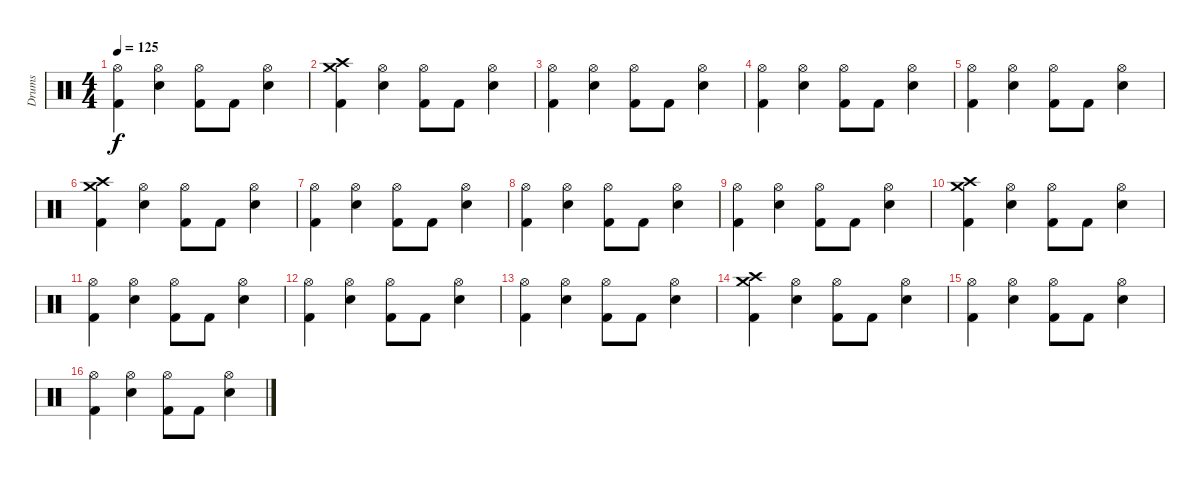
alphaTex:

\track ("Drums" "Drums") {instrument percussion}
\staff {score}
\articulation defaults
\ts (4 4)
\tempo 125
\clef neutral
\ks c
("Hi-Hat (open)" "Kick (hit) 2").4{dy f} ("Hi-Hat (open)" "Snare (hit) 2").4 ("Hi-Hat (open)" "Kick (hit) 2").8 "Kick (hit) 2".8 ("Hi-Hat (open)" "Snare (hit) 2").4 |
("Crash medium (hit)" "Crash high (hit)" "Kick (hit) 2").4 ("Hi-Hat (open)" "Snare (hit) 2").4 ("Hi-Hat (open)" "Kick (hit) 2").8 "Kick (hit) 2".8 ("Hi-Hat (open)" "Snare (hit) 2").4 |
("Hi-Hat (open)" "Kick (hit) 2").4 ("Hi-Hat (open)" "Snare (hit) 2").4 ("Hi-Hat (open)" "Kick (hit) 2").8 "Kick (hit) 2".8 ("Hi-Hat (open)" "Snare (hit) 2").4 |
("Hi-Hat (open)" "Kick (hit) 2").4 ("Hi-Hat (open)" "Snare (hit) 2").4 ("Hi-Hat (open)" "Kick (hit) 2").8 "Kick (hit) 2".8 ("Hi-Hat (open)" "Snare (hit) 2").4 |
("Hi-Hat (open)" "Kick (hit) 2").4 ("Hi-Hat (open)" "Snare (hit) 2").4 ("Hi-Hat (open)" "Kick (hit) 2").8 "Kick (hit) 2".8 ("Hi-Hat (open)" "Snare (hit) 2").4 |
("Crash medium (hit)" "Crash high (hit)" "Kick (hit) 2").4 ("Hi-Hat (open)" "Snare (hit) 2").4 ("Hi-Hat (open)" "Kick (hit) 2").8 "Kick (hit) 2".8 ("Hi-Hat (open)" "Snare (hit) 2").4 |
("Hi-Hat (open)" "Kick (hit) 2").4 ("Hi-Hat (open)" "Snare (hit) 2").4 ("Hi-Hat (open)" "Kick (hit) 2").8 "Kick (hit) 2".8 ("Hi-Hat (open)" "Snare (hit) 2").4 |
("Hi-Hat (open)" "Kick (hit) 2").4 ("Hi-Hat (open)" "Snare (hit) 2").4 ("Hi-Hat (open)" "Kick (hit) 2").8 "Kick (hit) 2".8 ("Hi-Hat (open)" "Snare (hit) 2").4 |
("Hi-Hat (open)" "Kick (hit) 2").4 ("Hi-Hat (open)" "Snare (hit) 2").4 ("Hi-Hat (open)" "Kick (hit) 2").8 "Kick (hit) 2".8 ("Hi-Hat (open)" "Snare (hit) 2").4 |
("Crash medium (hit)" "Crash high (hit)" "Kick (hit) 2").4 ("Hi-Hat (open)" "Snare (hit) 2").4 ("Hi-Hat (open)" "Kick (hit) 2").8 "Kick (hit) 2".8 ("Hi-Hat (open)" "Snare (hit) 2").4 |
("Hi-Hat (open)" "Kick (hit) 2").4 ("Hi-Hat (open)" "Snare (hit) 2").4 ("Hi-Hat (open)" "Kick (hit) 2").8 "Kick (hit) 2".8 ("Hi-Hat (open)" "Snare (hit) 2").4 |
("Hi-Hat (open)" "Kick (hit) 2").4 ("Hi-Hat (open)" "Snare (hit) 2").4 ("Hi-Hat (open)" "Kick (hit) 2").8 "Kick (hit) 2".8 ("Hi-Hat (open)" "Snare (hit) 2").4 |
("Hi-Hat (open)" "Kick (hit) 2").4 ("Hi-Hat (open)" "Snare (hit) 2").4 ("Hi-Hat (open)" "Kick (hit) 2").8 "Kick (hit) 2".8 ("Hi-Hat (open)" "Snare (hit) 2").4 |
("Crash medium (hit)" "Crash high (hit)" "Kick (hit) 2").4 ("Hi-Hat (open)" "Snare (hit) 2").4 ("Hi-Hat (open)" "Kick (hit) 2").8 "Kick (hit) 2".8 ("Hi-Hat (open)" "Snare (hit) 2").4 |
("Hi-Hat (open)" "Kick (hit) 2").4 ("Hi-Hat (open)" "Snare (hit) 2").4 ("Hi-Hat (open)" "Kick (hit) 2").8 "Kick (hit) 2".8 ("Hi-Hat (open)" "Snare (hit) 2").4 |
("Hi-Hat (open)" "Kick (hit) 2").4 ("Hi-Hat (open)" "Snare (hit) 2").4 ("Hi-Hat (open)" "Kick (hit) 2").8 "Kick (hit) 2".8 ("Hi-Hat (open)" "Snare (hit) 2").4
